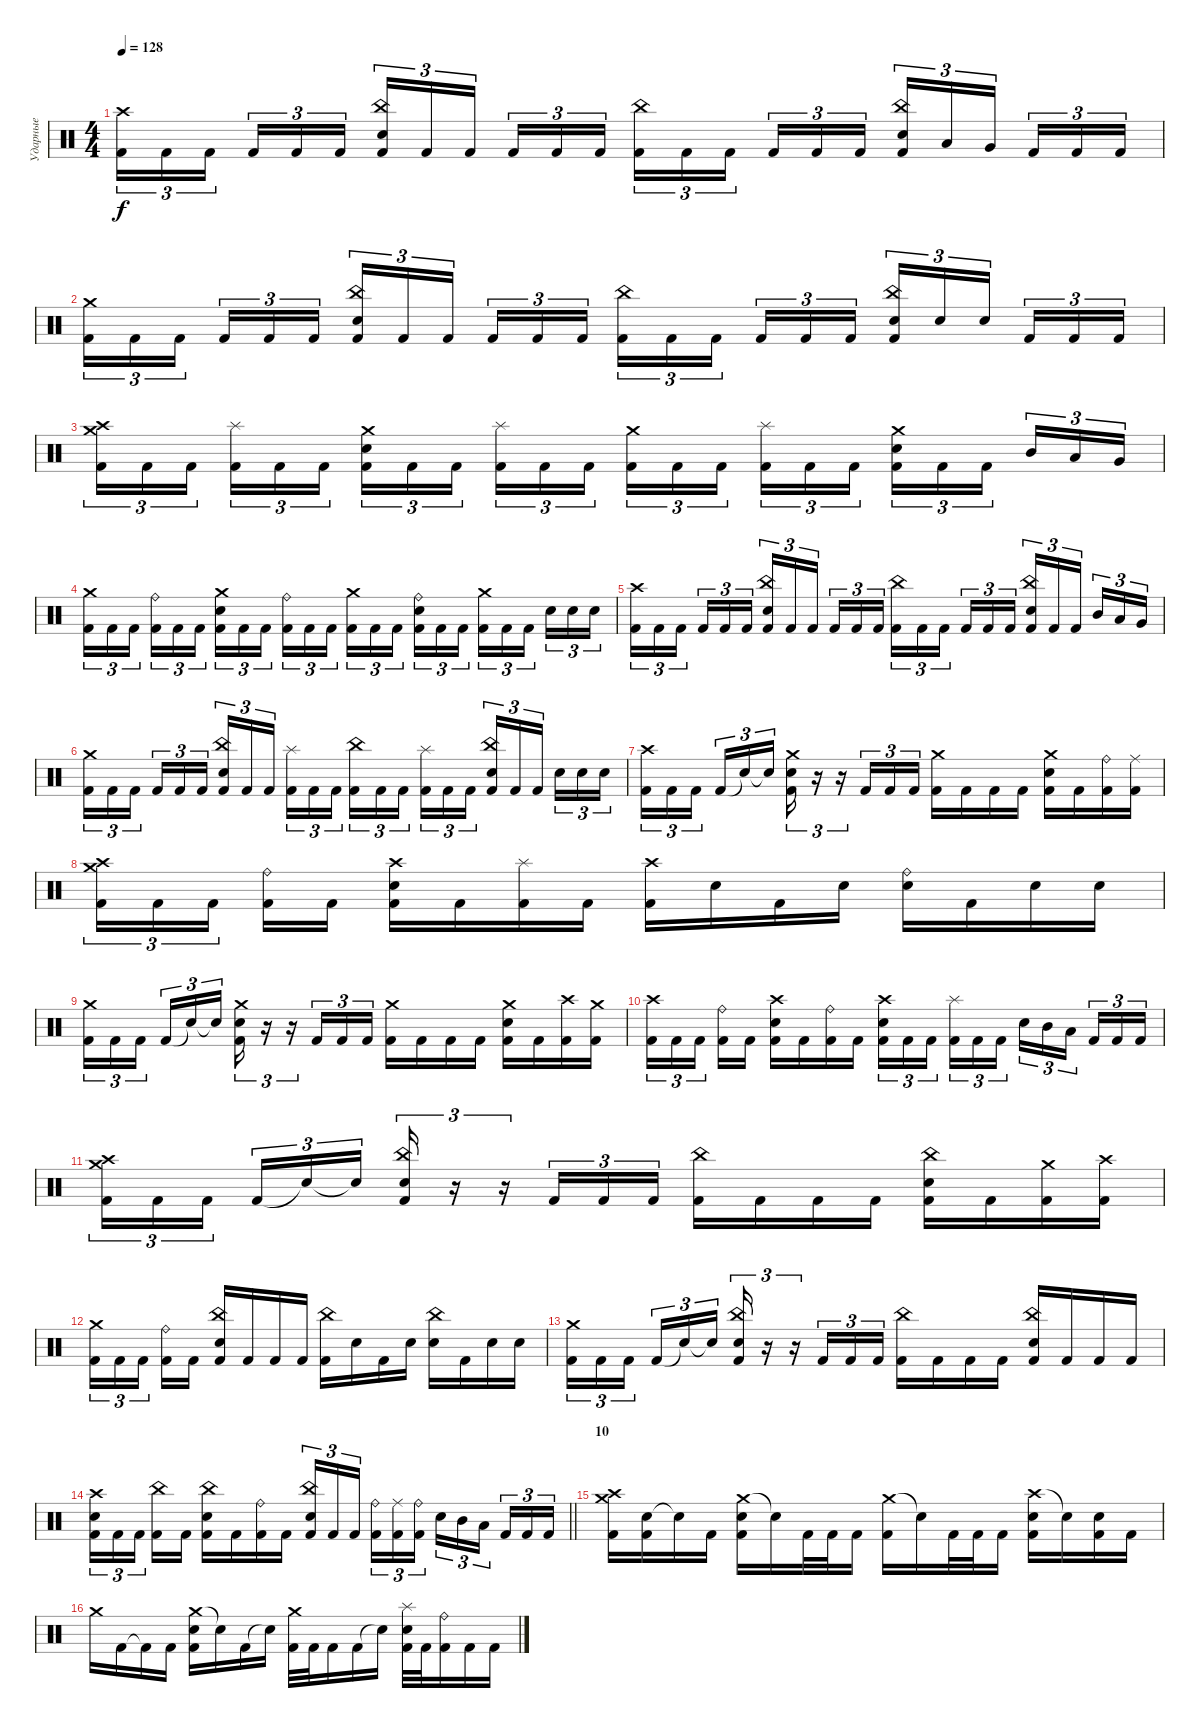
\track ("Ударные" "Ударные") {instrument percussion}
\staff {score}
\articulation defaults
\ts (4 4)
\tempo 128
\clef neutral
\ks c
("Crash high (hit)" "Kick (hit) 2").16{tu (3 2) dy f} "Kick (hit) 2".16{tu (3 2)} "Kick (hit) 2".16{tu (3 2) beam splitsecondary} "Kick (hit) 2".16{tu (3 2)} "Kick (hit) 2".16{tu (3 2)} "Kick (hit) 2".16{tu (3 2)} ("China (hit)" "Electric Snare (hit)" "Kick (hit) 2").16{tu (3 2)} "Kick (hit) 2".16{tu (3 2)} "Kick (hit) 2".16{tu (3 2) beam splitsecondary} "Kick (hit) 2".16{tu (3 2)} "Kick (hit) 2".16{tu (3 2)} "Kick (hit) 2".16{tu (3 2)} ("China (hit)" "Kick (hit) 2").16{tu (3 2)} "Kick (hit) 2".16{tu (3 2)} "Kick (hit) 2".16{tu (3 2) beam splitsecondary} "Kick (hit) 2".16{tu (3 2)} "Kick (hit) 2".16{tu (3 2)} "Kick (hit) 2".16{tu (3 2)} ("China (hit)" "Electric Snare (hit)" "Kick (hit) 2").16{tu (3 2)} "Low Tom (hit)".16{tu (3 2)} "Very Low Tom (hit)".16{tu (3 2) beam splitsecondary} "Kick (hit) 2".16{tu (3 2)} "Kick (hit) 2".16{tu (3 2)} "Kick (hit) 2".16{tu (3 2)} |
("Crash medium (hit)" "Kick (hit) 2").16{tu (3 2)} "Kick (hit) 2".16{tu (3 2)} "Kick (hit) 2".16{tu (3 2) beam splitsecondary} "Kick (hit) 2".16{tu (3 2)} "Kick (hit) 2".16{tu (3 2)} "Kick (hit) 2".16{tu (3 2)} ("China (hit)" "Electric Snare (hit)" "Kick (hit) 2").16{tu (3 2)} "Kick (hit) 2".16{tu (3 2)} "Kick (hit) 2".16{tu (3 2) beam splitsecondary} "Kick (hit) 2".16{tu (3 2)} "Kick (hit) 2".16{tu (3 2)} "Kick (hit) 2".16{tu (3 2)} ("China (hit)" "Kick (hit) 2").16{tu (3 2)} "Kick (hit) 2".16{tu (3 2)} "Kick (hit) 2".16{tu (3 2) beam splitsecondary} "Kick (hit) 2".16{tu (3 2)} "Kick (hit) 2".16{tu (3 2)} "Kick (hit) 2".16{tu (3 2)} ("China (hit)" "Electric Snare (hit)" "Kick (hit) 2").16{tu (3 2)} "Electric Snare (hit)".16{tu (3 2)} "Electric Snare (hit)".16{tu (3 2) beam splitsecondary} "Kick (hit) 2".16{tu (3 2)} "Kick (hit) 2".16{tu (3 2)} "Kick (hit) 2".16{tu (3 2)} |
("Crash high (hit)" "Crash medium (hit)" "Kick (hit) 2").16{tu (3 2)} "Kick (hit) 2".16{tu (3 2)} "Kick (hit) 2".16{tu (3 2) beam splitsecondary} ("Splash (hit)" "Kick (hit) 2").16{tu (3 2)} "Kick (hit) 2".16{tu (3 2)} "Kick (hit) 2".16{tu (3 2)} ("Crash medium (hit)" "Electric Snare (hit)" "Kick (hit) 2").16{tu (3 2)} "Kick (hit) 2".16{tu (3 2)} "Kick (hit) 2".16{tu (3 2) beam splitsecondary} ("Splash (hit)" "Kick (hit) 2").16{tu (3 2)} "Kick (hit) 2".16{tu (3 2)} "Kick (hit) 2".16{tu (3 2)} ("Crash medium (hit)" "Kick (hit) 2").16{tu (3 2)} "Kick (hit) 2".16{tu (3 2)} "Kick (hit) 2".16{tu (3 2) beam splitsecondary} ("Splash (hit)" "Kick (hit) 2").16{tu (3 2)} "Kick (hit) 2".16{tu (3 2)} "Kick (hit) 2".16{tu (3 2)} ("Crash medium (hit)" "Electric Snare (hit)" "Kick (hit) 2").16{tu (3 2)} "Kick (hit) 2".16{tu (3 2)} "Kick (hit) 2".16{tu (3 2) beam splitsecondary} "Mid Tom (hit)".16{tu (3 2)} "Low Tom (hit)".16{tu (3 2)} "Very Low Tom (hit)".16{tu (3 2)} |
("Crash medium (hit)" "Kick (hit) 2").16{tu (3 2)} "Kick (hit) 2".16{tu (3 2)} "Kick (hit) 2".16{tu (3 2) beam splitsecondary} ("Ride (bell)" "Kick (hit) 2").16{tu (3 2)} "Kick (hit) 2".16{tu (3 2)} "Kick (hit) 2".16{tu (3 2)} ("Crash medium (hit)" "Electric Snare (hit)" "Kick (hit) 2").16{tu (3 2)} "Kick (hit) 2".16{tu (3 2)} "Kick (hit) 2".16{tu (3 2) beam splitsecondary} ("Ride (bell)" "Kick (hit) 2").16{tu (3 2)} "Kick (hit) 2".16{tu (3 2)} "Kick (hit) 2".16{tu (3 2)} ("Crash medium (hit)" "Kick (hit) 2").16{tu (3 2)} "Kick (hit) 2".16{tu (3 2)} "Kick (hit) 2".16{tu (3 2) beam splitsecondary} ("Ride (bell)" "Electric Snare (hit)" "Kick (hit) 2").16{tu (3 2)} "Kick (hit) 2".16{tu (3 2)} "Kick (hit) 2".16{tu (3 2)} ("Crash medium (hit)" "Kick (hit) 2").16{tu (3 2)} "Kick (hit) 2".16{tu (3 2)} "Kick (hit) 2".16{tu (3 2) beam splitsecondary} "Electric Snare (hit)".16{tu (3 2)} "Electric Snare (hit)".16{tu (3 2)} "Electric Snare (hit)".16{tu (3 2)} |
("Crash high (hit)" "Kick (hit) 2").16{tu (3 2)} "Kick (hit) 2".16{tu (3 2)} "Kick (hit) 2".16{tu (3 2) beam splitsecondary} "Kick (hit) 2".16{tu (3 2)} "Kick (hit) 2".16{tu (3 2)} "Kick (hit) 2".16{tu (3 2)} ("China (hit)" "Electric Snare (hit)" "Kick (hit) 2").16{tu (3 2)} "Kick (hit) 2".16{tu (3 2)} "Kick (hit) 2".16{tu (3 2) beam splitsecondary} "Kick (hit) 2".16{tu (3 2)} "Kick (hit) 2".16{tu (3 2)} "Kick (hit) 2".16{tu (3 2)} ("China (hit)" "Kick (hit) 2").16{tu (3 2)} "Kick (hit) 2".16{tu (3 2)} "Kick (hit) 2".16{tu (3 2) beam splitsecondary} "Kick (hit) 2".16{tu (3 2)} "Kick (hit) 2".16{tu (3 2)} "Kick (hit) 2".16{tu (3 2)} ("China (hit)" "Electric Snare (hit)" "Kick (hit) 2").16{tu (3 2)} "Kick (hit) 2".16{tu (3 2)} "Kick (hit) 2".16{tu (3 2) beam splitsecondary} "Mid Tom (hit)".16{tu (3 2)} "Low Tom (hit)".16{tu (3 2)} "Very Low Tom (hit)".16{tu (3 2)} |
("Crash medium (hit)" "Kick (hit) 2").16{tu (3 2)} "Kick (hit) 2".16{tu (3 2)} "Kick (hit) 2".16{tu (3 2) beam splitsecondary} "Kick (hit) 2".16{tu (3 2)} "Kick (hit) 2".16{tu (3 2)} "Kick (hit) 2".16{tu (3 2)} ("China (hit)" "Electric Snare (hit)" "Kick (hit) 2").16{tu (3 2)} "Kick (hit) 2".16{tu (3 2)} "Kick (hit) 2".16{tu (3 2) beam splitsecondary} ("Splash (hit)" "Kick (hit) 2").16{tu (3 2)} "Kick (hit) 2".16{tu (3 2)} "Kick (hit) 2".16{tu (3 2)} ("China (hit)" "Kick (hit) 2").16{tu (3 2)} "Kick (hit) 2".16{tu (3 2)} "Kick (hit) 2".16{tu (3 2) beam splitsecondary} ("Splash (hit)" "Kick (hit) 2").16{tu (3 2)} "Kick (hit) 2".16{tu (3 2)} "Kick (hit) 2".16{tu (3 2)} ("China (hit)" "Electric Snare (hit)" "Kick (hit) 2").16{tu (3 2)} "Kick (hit) 2".16{tu (3 2)} "Kick (hit) 2".16{tu (3 2) beam splitsecondary} "Electric Snare (hit)".16{tu (3 2)} "Electric Snare (hit)".16{tu (3 2)} "Electric Snare (hit)".16{tu (3 2)} |
("Crash high (hit)" "Kick (hit) 2").16{tu (3 2)} "Kick (hit) 2".16{tu (3 2)} "Kick (hit) 2".16{tu (3 2) beam splitsecondary} "Kick (hit) 2".16{tu (3 2)} "Snare (hit)"{t}.16{tu (3 2)} "Snare (hit)"{t}.16{tu (3 2)} ("Crash medium (hit)" "Electric Snare (hit)" "Kick (hit) 2").16{tu (3 2)} r.16{tu (3 2)} r.16{tu (3 2)} "Kick (hit) 2".16{tu (3 2)} "Kick (hit) 2".16{tu (3 2)} "Kick (hit) 2".16{tu (3 2)} ("Crash medium (hit)" "Kick (hit) 2").16 "Kick (hit) 2".16 "Kick (hit) 2".16 "Kick (hit) 2".16 ("Crash medium (hit)" "Electric Snare (hit)" "Kick (hit) 2").16 "Kick (hit) 2".16 ("Ride (bell)" "Kick (hit) 2").16 ("Ride (middle)" "Kick (hit) 2").16 |
("Crash high (hit)" "Crash medium (hit)" "Kick (hit) 2").16{tu (3 2)} "Kick (hit) 2".16{tu (3 2)} "Kick (hit) 2".16{tu (3 2) beam splitsecondary} ("Ride (bell)" "Kick (hit) 2").16 "Kick (hit) 2".16 ("Crash high (hit)" "Electric Snare (hit)" "Kick (hit) 2").16 "Kick (hit) 2".16 ("Splash (hit)" "Kick (hit) 2").16 "Kick (hit) 2".16 ("Crash high (hit)" "Kick (hit) 2").16 "Electric Snare (hit)".16 "Kick (hit) 2".16 "Electric Snare (hit)".16 ("Ride (bell)" "Electric Snare (hit)").16 "Kick (hit) 2".16 "Electric Snare (hit)".16 "Electric Snare (hit)".16 |
("Crash medium (hit)" "Kick (hit) 2").16{tu (3 2)} "Kick (hit) 2".16{tu (3 2)} "Kick (hit) 2".16{tu (3 2) beam splitsecondary} "Kick (hit) 2".16{tu (3 2)} "Snare (hit)"{t}.16{tu (3 2)} "Snare (hit)"{t}.16{tu (3 2)} ("Crash medium (hit)" "Electric Snare (hit)" "Kick (hit) 2").16{tu (3 2)} r.16{tu (3 2)} r.16{tu (3 2)} "Kick (hit) 2".16{tu (3 2)} "Kick (hit) 2".16{tu (3 2)} "Kick (hit) 2".16{tu (3 2)} ("Crash medium (hit)" "Kick (hit) 2").16 "Kick (hit) 2".16 "Kick (hit) 2".16 "Kick (hit) 2".16 ("Crash medium (hit)" "Electric Snare (hit)" "Kick (hit) 2").16 "Kick (hit) 2".16 ("Crash high (hit)" "Kick (hit) 2").16 ("Crash medium (hit)" "Kick (hit) 2").16 |
("Crash high (hit)" "Kick (hit) 2").16{tu (3 2)} "Kick (hit) 2".16{tu (3 2)} "Kick (hit) 2".16{tu (3 2) beam splitsecondary} ("Ride (bell)" "Kick (hit) 2").16 "Kick (hit) 2".16 ("Crash high (hit)" "Electric Snare (hit)" "Kick (hit) 2").16 "Kick (hit) 2".16 ("Ride (bell)" "Kick (hit) 2").16 "Kick (hit) 2".16 ("Crash high (hit)" "Electric Snare (hit)" "Kick (hit) 2").16{tu (3 2)} "Kick (hit) 2".16{tu (3 2)} "Kick (hit) 2".16{tu (3 2) beam splitsecondary} ("Splash (hit)" "Kick (hit) 2").16{tu (3 2)} "Kick (hit) 2".16{tu (3 2)} "Kick (hit) 2".16{tu (3 2)} "Electric Snare (hit)".16{tu (3 2)} "Mid Tom (hit)".16{tu (3 2)} "Low Tom (hit)".16{tu (3 2) beam splitsecondary} "Kick (hit) 2".16{tu (3 2)} "Kick (hit) 2".16{tu (3 2)} "Kick (hit) 2".16{tu (3 2)} |
("Crash high (hit)" "Crash medium (hit)" "Kick (hit) 2").16{tu (3 2)} "Kick (hit) 2".16{tu (3 2)} "Kick (hit) 2".16{tu (3 2) beam splitsecondary} "Kick (hit) 2".16{tu (3 2)} "Snare (hit)"{t}.16{tu (3 2)} "Snare (hit)"{t}.16{tu (3 2)} ("China (hit)" "Electric Snare (hit)" "Kick (hit) 2").16{tu (3 2)} r.16{tu (3 2)} r.16{tu (3 2)} "Kick (hit) 2".16{tu (3 2)} "Kick (hit) 2".16{tu (3 2)} "Kick (hit) 2".16{tu (3 2)} ("China (hit)" "Kick (hit) 2").16 "Kick (hit) 2".16 "Kick (hit) 2".16 "Kick (hit) 2".16 ("China (hit)" "Electric Snare (hit)" "Kick (hit) 2").16 "Kick (hit) 2".16 ("Crash medium (hit)" "Kick (hit) 2").16 ("Crash high (hit)" "Kick (hit) 2").16 |
("Crash medium (hit)" "Kick (hit) 2").16{tu (3 2)} "Kick (hit) 2".16{tu (3 2)} "Kick (hit) 2".16{tu (3 2) beam splitsecondary} ("Ride (bell)" "Kick (hit) 2").16 "Kick (hit) 2".16 ("China (hit)" "Electric Snare (hit)" "Kick (hit) 2").16 "Kick (hit) 2".16 "Kick (hit) 2".16 "Kick (hit) 2".16 ("China (hit)" "Kick (hit) 2").16 "Electric Snare (hit)".16 "Kick (hit) 2".16 "Electric Snare (hit)".16 ("China (hit)" "Electric Snare (hit)").16 "Kick (hit) 2".16 "Electric Snare (hit)".16 "Electric Snare (hit)".16 |
("Crash medium (hit)" "Kick (hit) 2").16{tu (3 2)} "Kick (hit) 2".16{tu (3 2)} "Kick (hit) 2".16{tu (3 2) beam splitsecondary} "Kick (hit) 2".16{tu (3 2)} "Snare (hit)"{t}.16{tu (3 2)} "Snare (hit)"{t}.16{tu (3 2)} ("China (hit)" "Electric Snare (hit)" "Kick (hit) 2").16{tu (3 2)} r.16{tu (3 2)} r.16{tu (3 2)} "Kick (hit) 2".16{tu (3 2)} "Kick (hit) 2".16{tu (3 2)} "Kick (hit) 2".16{tu (3 2)} ("China (hit)" "Kick (hit) 2").16 "Kick (hit) 2".16 "Kick (hit) 2".16 "Kick (hit) 2".16 ("China (hit)" "Electric Snare (hit)" "Kick (hit) 2").16 "Kick (hit) 2".16 "Kick (hit) 2".16 "Kick (hit) 2".16 |
\barLineRight lightlight
("Crash high (hit)" "Electric Snare (hit)" "Kick (hit) 2").16{tu (3 2)} "Kick (hit) 2".16{tu (3 2)} "Kick (hit) 2".16{tu (3 2) beam splitsecondary} ("China (hit)" "Kick (hit) 2").16 "Kick (hit) 2".16 ("China (hit)" "Electric Snare (hit)" "Kick (hit) 2").16 "Kick (hit) 2".16 ("Ride (bell)" "Kick (hit) 2").16 "Kick (hit) 2".16 ("China (hit)" "Electric Snare (hit)" "Kick (hit) 2").16{tu (3 2)} "Kick (hit) 2".16{tu (3 2)} "Kick (hit) 2".16{tu (3 2) beam splitsecondary} ("Ride (bell)" "Kick (hit) 2").16{tu (3 2)} ("Ride (middle)" "Kick (hit) 2").16{tu (3 2)} ("Ride (bell)" "Kick (hit) 2").16{tu (3 2)} "Electric Snare (hit)".16{tu (3 2)} "Mid Tom (hit)".16{tu (3 2)} "Low Tom (hit)".16{tu (3 2) beam splitsecondary} "Kick (hit) 2".16{tu (3 2)} "Kick (hit) 2".16{tu (3 2)} "Kick (hit) 2".16{tu (3 2)} |
\section ("" "10")
("Crash medium (hit)" "Crash high (hit)" "Kick (hit) 2").16 ("Electric Snare (hit)" "Kick (hit) 2").16 "Snare (hit)"{t}.16 "Kick (hit) 2".16 ("Crash medium (hit)" "Electric Snare (hit)" "Kick (hit) 2").16 "Snare (hit)"{t}.16 "Kick (hit) 2".32 "Kick (hit) 2".32 "Kick (hit) 2".16 ("Crash medium (hit)" "Kick (hit) 2").16 "Snare (hit)"{t}.16 "Kick (hit) 2".32 "Kick (hit) 2".32 "Kick (hit) 2".16 ("Crash high (hit)" "Electric Snare (hit)" "Kick (hit) 2").16 "Snare (hit)"{t}.16 ("Electric Snare (hit)" "Kick (hit) 2").16 "Kick (hit) 2".16 |
"Crash medium (hit)".16 "Kick (hit) 2".16 "Kick (hit) 2"{t}.16 "Kick (hit) 2".16 ("Crash medium (hit)" "Electric Snare (hit)" "Kick (hit) 2").16 "Snare (hit)"{t}.16 "Kick (hit) 2".16 "Snare (hit)"{t}.16 ("Crash medium (hit)" "Kick (hit) 2").32 "Kick (hit) 2".32 "Kick (hit) 2".16 "Kick (hit) 2".16 "Snare (hit)"{t}.16 ("Splash (hit)" "Electric Snare (hit)" "Kick (hit) 2").32 "Kick (hit) 2".32 ("Ride (bell)" "Kick (hit) 2").16 "Kick (hit) 2".16 "Kick (hit) 2".16
